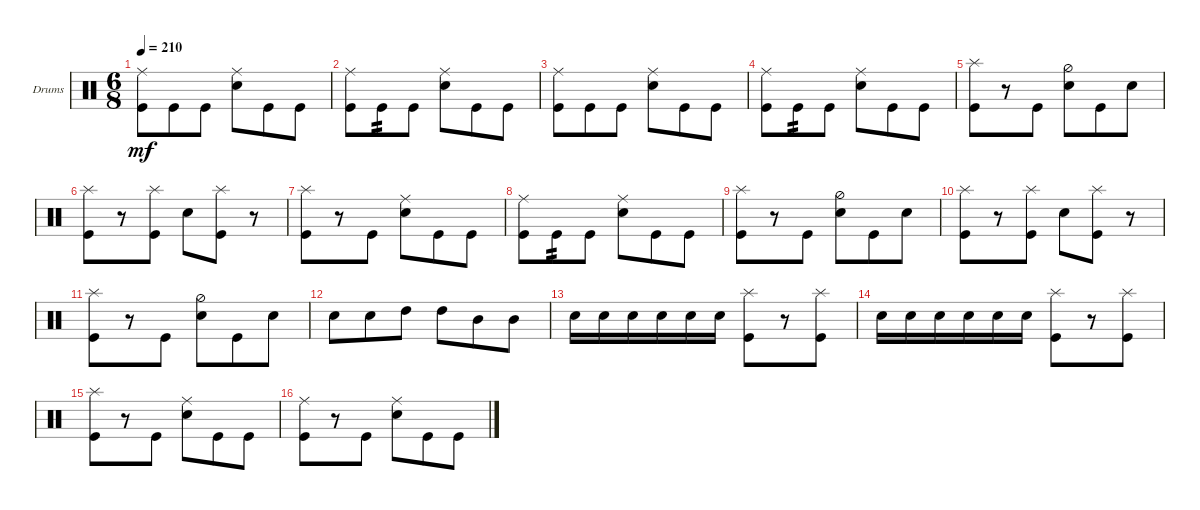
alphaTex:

\bracketExtendMode groupsimilarinstruments
\firstSystemTrackNameOrientation horizontal
\otherSystemsTrackNameOrientation horizontal
\track ("Drumkit" "Drums") {instrument percussion}
\staff {score}
\articulation defaults
\ts (6 8)
\tempo 210
\clef neutral
\ks c
("Kick (hit)" "Ride (middle)").8{dy mf} "Kick (hit)".8 "Kick (hit)".8 ("Snare (hit) 2" "Ride (middle)").8 "Kick (hit)".8 "Kick (hit)".8 |
("Kick (hit)" "Ride (middle)").8 "Kick (hit)".8{tp 2} "Kick (hit)".8 ("Snare (hit) 2" "Ride (middle)").8 "Kick (hit)".8 "Kick (hit)".8 |
("Kick (hit)" "Ride (middle)").8 "Kick (hit)".8 "Kick (hit)".8 ("Snare (hit) 2" "Ride (middle)").8 "Kick (hit)".8 "Kick (hit)".8 |
("Kick (hit)" "Ride (middle)").8 "Kick (hit)".8{tp 2} "Kick (hit)".8 ("Snare (hit) 2" "Ride (middle)").8 "Kick (hit)".8 "Kick (hit)".8 |
("Kick (hit)" "Splash (hit)").8 r.8 "Kick (hit)".8 ("Snare (hit) 2" "Hi-Hat (half)").8 "Kick (hit)".8 "Snare (hit) 2".8 |
("Kick (hit)" "Splash (hit)").8 r.8 ("Kick (hit)" "Splash (hit)").8 "Snare (hit) 2".8 ("Kick (hit)" "Splash (hit)").8 r.8 |
("Kick (hit)" "Splash (hit)").8 r.8 "Kick (hit)".8 ("Snare (hit) 2" "Ride (middle)").8 "Kick (hit)".8 "Kick (hit)".8 |
("Kick (hit)" "Ride (middle)").8 "Kick (hit)".8{tp 2} "Kick (hit)".8 ("Snare (hit) 2" "Ride (middle)").8 "Kick (hit)".8 "Kick (hit)".8 |
("Kick (hit)" "Splash (hit)").8 r.8 "Kick (hit)".8 ("Snare (hit) 2" "Hi-Hat (half)").8 "Kick (hit)".8 "Snare (hit) 2".8 |
("Kick (hit)" "Splash (hit)").8 r.8 ("Kick (hit)" "Splash (hit)").8 "Snare (hit) 2".8 ("Kick (hit)" "Splash (hit)").8 r.8 |
("Kick (hit)" "Splash (hit)").8 r.8 "Kick (hit)".8 ("Snare (hit) 2" "Hi-Hat (half)").8 "Kick (hit)".8 "Snare (hit) 2".8 |
"Snare (hit) 2".8 "Snare (hit) 2".8 "High Tom (hit)".8 "High Tom (hit)".8 "Mid Tom (hit)".8 "Mid Tom (hit)".8 |
"Snare (hit) 2".16 "Snare (hit) 2".16 "Snare (hit) 2".16 "Snare (hit) 2".16 "Snare (hit) 2".16 "Snare (hit) 2".16 ("Kick (hit)" "Splash (hit)").8 r.8 ("Kick (hit)" "Splash (hit)").8 |
"Snare (hit) 2".16 "Snare (hit) 2".16 "Snare (hit) 2".16 "Snare (hit) 2".16 "Snare (hit) 2".16 "Snare (hit) 2".16 ("Kick (hit)" "Splash (hit)").8 r.8 ("Kick (hit)" "Splash (hit)").8 |
("Kick (hit)" "Splash (hit)").8 r.8 "Kick (hit)".8 ("Snare (hit) 2" "Ride (middle)").8 "Kick (hit)".8 "Kick (hit)".8 |
("Kick (hit)" "Ride (middle)").8 r.8 "Kick (hit)".8 ("Snare (hit) 2" "Ride (middle)").8 "Kick (hit)".8 "Kick (hit)".8
